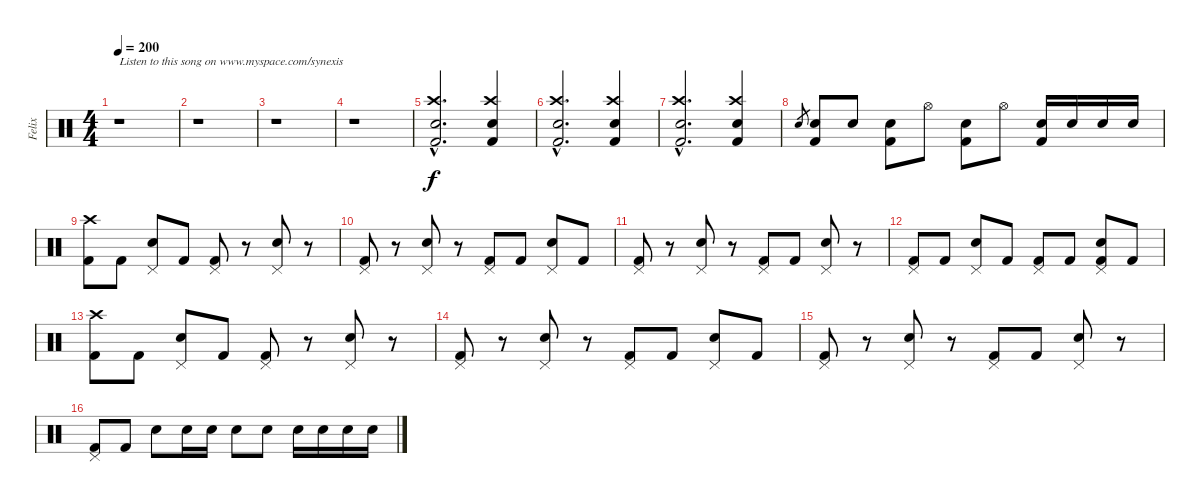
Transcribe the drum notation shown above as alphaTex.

\track ("Felix" "Felix") {instrument percussion}
\staff {score}
\articulation defaults
\ts (4 4)
\tempo 200
\clef neutral
\ks c
r.1{txt "Listen to this song on www.myspace.com/synexis" dy f} |
r.1 |
r.1 |
r.1 |
("Electric Snare (hit)"{hac} "Crash high (hit)"{hac} "Kick (hit) 2"{hac}).2{d} ("Electric Snare (hit)" "Crash high (hit)" "Kick (hit) 2").4 |
("Electric Snare (hit)"{hac} "Crash high (hit)"{hac} "Kick (hit) 2"{hac}).2{d} ("Electric Snare (hit)" "Crash high (hit)" "Kick (hit) 2").4 |
("Electric Snare (hit)"{hac} "Crash high (hit)"{hac} "Kick (hit) 2"{hac}).2{d} ("Electric Snare (hit)" "Crash high (hit)" "Kick (hit) 2").4 |
"Electric Snare (hit)".8{gr} ("Electric Snare (hit)" "Kick (hit) 2").8 "Electric Snare (hit)".8 ("Electric Snare (hit)" "Kick (hit) 2").8 "Hi-Hat (open)".8 ("Electric Snare (hit)" "Kick (hit) 2").8 "Hi-Hat (open)".8 ("Electric Snare (hit)" "Kick (hit) 2").16 "Electric Snare (hit)".16 "Electric Snare (hit)".16 "Electric Snare (hit)".16 |
("Crash high (hit)" "Kick (hit) 2").8 "Kick (hit) 2".8 ("Pedal Hi-Hat (hit)" "Electric Snare (hit)").8 "Kick (hit) 2".8 ("Pedal Hi-Hat (hit)" "Kick (hit) 2").8 r.8 ("Pedal Hi-Hat (hit)" "Electric Snare (hit)").8 r.8 |
("Pedal Hi-Hat (hit)" "Kick (hit) 2").8 r.8 ("Pedal Hi-Hat (hit)" "Electric Snare (hit)").8 r.8 ("Pedal Hi-Hat (hit)" "Kick (hit) 2").8 "Kick (hit) 2".8 ("Pedal Hi-Hat (hit)" "Electric Snare (hit)").8 "Kick (hit) 2".8 |
("Pedal Hi-Hat (hit)" "Kick (hit) 2").8 r.8 ("Pedal Hi-Hat (hit)" "Electric Snare (hit)").8 r.8 ("Pedal Hi-Hat (hit)" "Kick (hit) 2").8 "Kick (hit) 2".8 ("Pedal Hi-Hat (hit)" "Electric Snare (hit)").8 r.8 |
("Pedal Hi-Hat (hit)" "Kick (hit) 2").8 "Kick (hit) 2".8 ("Pedal Hi-Hat (hit)" "Electric Snare (hit)").8 "Kick (hit) 2".8 ("Pedal Hi-Hat (hit)" "Kick (hit) 2").8 "Kick (hit) 2".8 ("Pedal Hi-Hat (hit)" "Electric Snare (hit)" "Kick (hit) 2").8 "Kick (hit) 2".8 |
("Crash high (hit)" "Kick (hit) 2").8 "Kick (hit) 2".8 ("Pedal Hi-Hat (hit)" "Electric Snare (hit)").8 "Kick (hit) 2".8 ("Pedal Hi-Hat (hit)" "Kick (hit) 2").8 r.8 ("Pedal Hi-Hat (hit)" "Electric Snare (hit)").8 r.8 |
("Pedal Hi-Hat (hit)" "Kick (hit) 2").8 r.8 ("Pedal Hi-Hat (hit)" "Electric Snare (hit)").8 r.8 ("Pedal Hi-Hat (hit)" "Kick (hit) 2").8 "Kick (hit) 2".8 ("Pedal Hi-Hat (hit)" "Electric Snare (hit)").8 "Kick (hit) 2".8 |
("Pedal Hi-Hat (hit)" "Kick (hit) 2").8 r.8 ("Pedal Hi-Hat (hit)" "Electric Snare (hit)").8 r.8 ("Pedal Hi-Hat (hit)" "Kick (hit) 2").8 "Kick (hit) 2".8 ("Pedal Hi-Hat (hit)" "Electric Snare (hit)").8 r.8 |
("Pedal Hi-Hat (hit)" "Kick (hit) 2").8 "Kick (hit) 2".8 "Electric Snare (hit)".8 "Electric Snare (hit)".16 "Electric Snare (hit)".16 "Electric Snare (hit)".8 "Electric Snare (hit)".8 "Electric Snare (hit)".16 "Electric Snare (hit)".16 "Electric Snare (hit)".16 "Electric Snare (hit)".16
